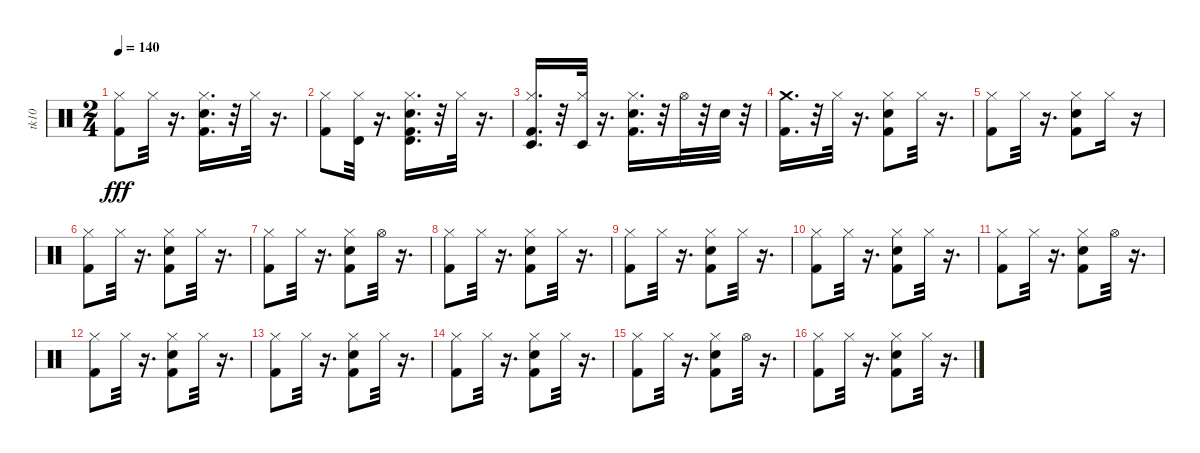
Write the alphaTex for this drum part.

\track ("tk10" "tk10") {instrument percussion}
\staff {score}
\articulation defaults
\ts (2 4)
\tempo 140
\clef neutral
\ks c
("Kick (hit) 2" "Hi-Hat (closed)").8{dy fff} "Hi-Hat (closed)".32 r.16{d} ("Hi-Hat (closed)" "Snare (hit) 2" "Kick (hit) 2").16{d} r.32 "Hi-Hat (closed)".32 r.16{d} |
("Kick (hit) 2" "Hi-Hat (closed)").8 ("Timbale high (hit)" "Hi-Hat (closed)").32 r.16{d} ("Hi-Hat (closed)" "Kick (hit) 2" "Snare (hit) 2" "Timbale high (hit)").16{d} r.32 "Hi-Hat (closed)".32 r.16{d} |
("Kick (hit) 2" "Timbale low (hit)" "Hi-Hat (closed)").16{d} r.32 ("Timbale low (hit)" "Hi-Hat (closed)").32 r.16{d} ("Snare (hit) 2" "Kick (hit) 2" "Hi-Hat (closed)").16{d} r.32 "Hi-Hat (open)".32 r.32 "Snare (hit) 2".32 r.32 |
("Kick (hit) 2" "Crash medium (hit)").16{d} r.32 "Hi-Hat (closed)".32 r.16{d} ("Kick (hit) 2" "Snare (hit) 2" "Hi-Hat (closed)").8 "Hi-Hat (closed)".32 r.16{d} |
("Kick (hit) 2" "Hi-Hat (closed)").8 "Hi-Hat (closed)".32 r.16{d} ("Snare (hit) 2" "Kick (hit) 2" "Hi-Hat (closed)").8 "Hi-Hat (closed)".16 r.16 |
("Kick (hit) 2" "Hi-Hat (closed)").8 "Hi-Hat (closed)".32 r.16{d} ("Hi-Hat (closed)" "Snare (hit) 2" "Kick (hit) 2").8 "Hi-Hat (closed)".32 r.16{d} |
("Kick (hit) 2" "Hi-Hat (closed)").8 "Hi-Hat (closed)".32 r.16{d} ("Kick (hit) 2" "Snare (hit) 2" "Hi-Hat (closed)").8 "Hi-Hat (open)".32 r.16{d} |
("Kick (hit) 2" "Hi-Hat (closed)").8 "Hi-Hat (closed)".32 r.16{d} ("Kick (hit) 2" "Hi-Hat (closed)" "Snare (hit) 2").8 "Hi-Hat (closed)".32 r.16{d} |
("Kick (hit) 2" "Hi-Hat (closed)").8 "Hi-Hat (closed)".32 r.16{d} ("Snare (hit) 2" "Kick (hit) 2" "Hi-Hat (closed)").8 "Hi-Hat (closed)".32 r.16{d} |
("Kick (hit) 2" "Hi-Hat (closed)").8 "Hi-Hat (closed)".32 r.16{d} ("Snare (hit) 2" "Kick (hit) 2" "Hi-Hat (closed)").8 "Hi-Hat (closed)".32 r.16{d} |
("Kick (hit) 2" "Hi-Hat (closed)").8 "Hi-Hat (closed)".32 r.16{d} ("Snare (hit) 2" "Kick (hit) 2" "Hi-Hat (closed)").8 "Hi-Hat (open)".32 r.16{d} |
("Kick (hit) 2" "Hi-Hat (closed)").8 "Hi-Hat (closed)".32 r.16{d} ("Snare (hit) 2" "Kick (hit) 2" "Hi-Hat (closed)").8 "Hi-Hat (closed)".32 r.16{d} |
("Kick (hit) 2" "Hi-Hat (closed)").8 "Hi-Hat (closed)".32 r.16{d} ("Hi-Hat (closed)" "Snare (hit) 2" "Kick (hit) 2").8 "Hi-Hat (closed)".32 r.16{d} |
("Kick (hit) 2" "Hi-Hat (closed)").8 "Hi-Hat (closed)".32 r.16{d} ("Hi-Hat (closed)" "Snare (hit) 2" "Kick (hit) 2").8 "Hi-Hat (closed)".32 r.16{d} |
("Kick (hit) 2" "Hi-Hat (closed)").8 "Hi-Hat (closed)".32 r.16{d} ("Snare (hit) 2" "Kick (hit) 2" "Hi-Hat (closed)").8 "Hi-Hat (open)".32 r.16{d} |
("Kick (hit) 2" "Hi-Hat (closed)").8 "Hi-Hat (closed)".32 r.16{d} ("Snare (hit) 2" "Kick (hit) 2" "Hi-Hat (closed)").8 "Hi-Hat (closed)".32 r.16{d}
